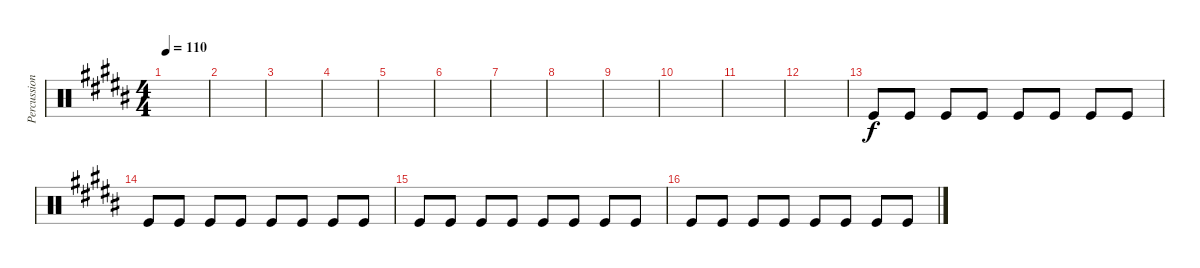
\track ("Percussions" "Percussion") {instrument percussion}
\staff {score}
\articulation defaults
\ts (4 4)
\tempo 110
\clef neutral
\ks b
|
|
|
|
|
|
|
|
|
|
|
|
"Kick (hit)".8 "Kick (hit)".8 "Kick (hit)".8 "Kick (hit)".8 "Kick (hit)".8 "Kick (hit)".8 "Kick (hit)".8 "Kick (hit)".8 |
"Kick (hit)".8 "Kick (hit)".8 "Kick (hit)".8 "Kick (hit)".8 "Kick (hit)".8 "Kick (hit)".8 "Kick (hit)".8 "Kick (hit)".8 |
"Kick (hit)".8 "Kick (hit)".8 "Kick (hit)".8 "Kick (hit)".8 "Kick (hit)".8 "Kick (hit)".8 "Kick (hit)".8 "Kick (hit)".8 |
"Kick (hit)".8 "Kick (hit)".8 "Kick (hit)".8 "Kick (hit)".8 "Kick (hit)".8 "Kick (hit)".8 "Kick (hit)".8 "Kick (hit)".8
